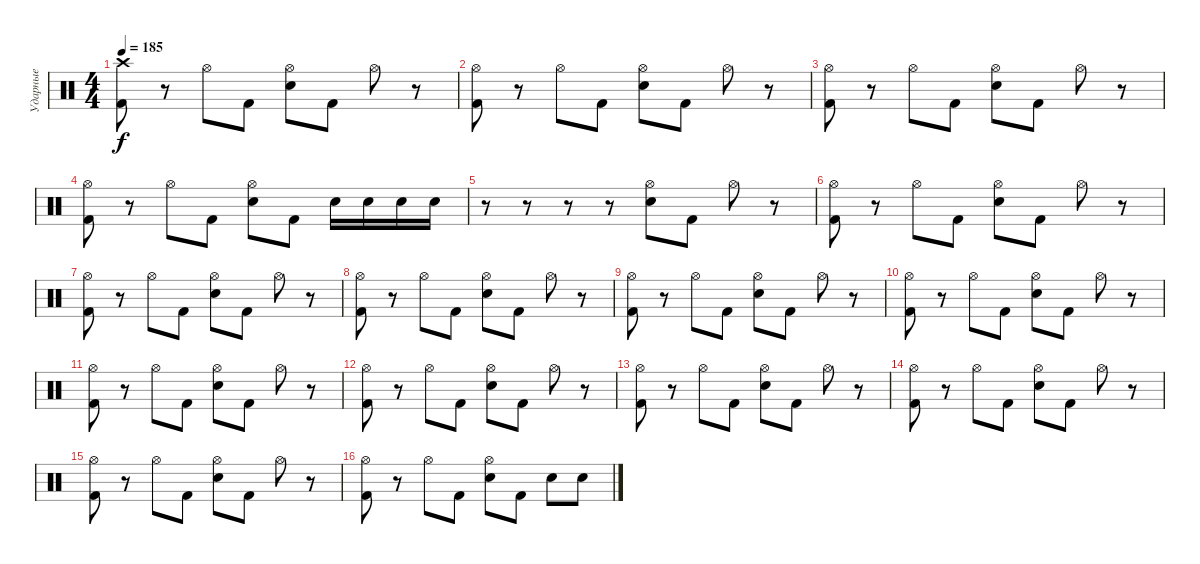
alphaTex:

\track ("Ударные" "Ударные") {instrument percussion}
\staff {score}
\articulation defaults
\ts (4 4)
\tempo 185
\clef neutral
\ks c
("Kick (hit) 2" "Crash high (hit)").8{dy f} r.8 "Hi-Hat (open)".8 "Kick (hit) 2".8 ("Electric Snare (hit)" "Hi-Hat (open)").8 "Kick (hit) 2".8 "Hi-Hat (open)".8 r.8 |
("Kick (hit) 2" "Hi-Hat (open)").8 r.8 "Hi-Hat (open)".8 "Kick (hit) 2".8 ("Electric Snare (hit)" "Hi-Hat (open)").8 "Kick (hit) 2".8 "Hi-Hat (open)".8 r.8 |
("Kick (hit) 2" "Hi-Hat (open)").8 r.8 "Hi-Hat (open)".8 "Kick (hit) 2".8 ("Electric Snare (hit)" "Hi-Hat (open)").8 "Kick (hit) 2".8 "Hi-Hat (open)".8 r.8 |
("Kick (hit) 2" "Hi-Hat (open)").8 r.8 "Hi-Hat (open)".8 "Kick (hit) 2".8 ("Electric Snare (hit)" "Hi-Hat (open)").8 "Kick (hit) 2".8 "Electric Snare (hit)".16 "Electric Snare (hit)".16 "Electric Snare (hit)".16 "Electric Snare (hit)".16 |
r.8 r.8 r.8 r.8 ("Electric Snare (hit)" "Hi-Hat (open)").8 "Kick (hit) 2".8 "Hi-Hat (open)".8 r.8 |
("Kick (hit) 2" "Hi-Hat (open)").8 r.8 "Hi-Hat (open)".8 "Kick (hit) 2".8 ("Electric Snare (hit)" "Hi-Hat (open)").8 "Kick (hit) 2".8 "Hi-Hat (open)".8 r.8 |
("Kick (hit) 2" "Hi-Hat (open)").8 r.8 "Hi-Hat (open)".8 "Kick (hit) 2".8 ("Electric Snare (hit)" "Hi-Hat (open)").8 "Kick (hit) 2".8 "Hi-Hat (open)".8 r.8 |
("Kick (hit) 2" "Hi-Hat (open)").8 r.8 "Hi-Hat (open)".8 "Kick (hit) 2".8 ("Electric Snare (hit)" "Hi-Hat (open)").8 "Kick (hit) 2".8 "Hi-Hat (open)".8 r.8 |
("Kick (hit) 2" "Hi-Hat (open)").8 r.8 "Hi-Hat (open)".8 "Kick (hit) 2".8 ("Electric Snare (hit)" "Hi-Hat (open)").8 "Kick (hit) 2".8 "Hi-Hat (open)".8 r.8 |
("Kick (hit) 2" "Hi-Hat (open)").8 r.8 "Hi-Hat (open)".8 "Kick (hit) 2".8 ("Electric Snare (hit)" "Hi-Hat (open)").8 "Kick (hit) 2".8 "Hi-Hat (open)".8 r.8 |
("Kick (hit) 2" "Hi-Hat (open)").8 r.8 "Hi-Hat (open)".8 "Kick (hit) 2".8 ("Electric Snare (hit)" "Hi-Hat (open)").8 "Kick (hit) 2".8 "Hi-Hat (open)".8 r.8 |
("Kick (hit) 2" "Hi-Hat (open)").8 r.8 "Hi-Hat (open)".8 "Kick (hit) 2".8 ("Electric Snare (hit)" "Hi-Hat (open)").8 "Kick (hit) 2".8 "Hi-Hat (open)".8 r.8 |
("Kick (hit) 2" "Hi-Hat (open)").8 r.8 "Hi-Hat (open)".8 "Kick (hit) 2".8 ("Electric Snare (hit)" "Hi-Hat (open)").8 "Kick (hit) 2".8 "Hi-Hat (open)".8 r.8 |
("Kick (hit) 2" "Hi-Hat (open)").8 r.8 "Hi-Hat (open)".8 "Kick (hit) 2".8 ("Electric Snare (hit)" "Hi-Hat (open)").8 "Kick (hit) 2".8 "Hi-Hat (open)".8 r.8 |
("Kick (hit) 2" "Hi-Hat (open)").8 r.8 "Hi-Hat (open)".8 "Kick (hit) 2".8 ("Electric Snare (hit)" "Hi-Hat (open)").8 "Kick (hit) 2".8 "Hi-Hat (open)".8 r.8 |
("Kick (hit) 2" "Hi-Hat (open)").8 r.8 "Hi-Hat (open)".8 "Kick (hit) 2".8 ("Electric Snare (hit)" "Hi-Hat (open)").8 "Kick (hit) 2".8 "Electric Snare (hit)".8 "Electric Snare (hit)".8
